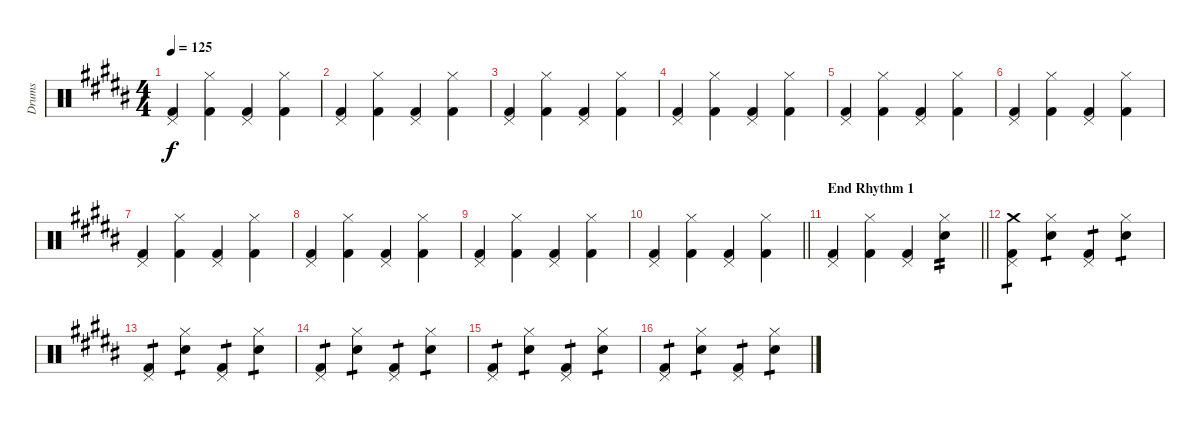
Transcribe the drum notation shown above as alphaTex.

\track ("Drums" "Drums") {instrument percussion}
\staff {score}
\articulation defaults
\ts (4 4)
\tempo 125
\clef neutral
\ks b
("Kick (hit) 2" "Pedal Hi-Hat (hit)").4{dy f} ("Kick (hit) 2" "Hi-Hat (closed)").4 ("Kick (hit) 2" "Pedal Hi-Hat (hit)").4 ("Kick (hit) 2" "Hi-Hat (closed)").4 |
("Kick (hit) 2" "Pedal Hi-Hat (hit)").4 ("Kick (hit) 2" "Hi-Hat (closed)").4 ("Kick (hit) 2" "Pedal Hi-Hat (hit)").4 ("Kick (hit) 2" "Hi-Hat (closed)").4 |
("Kick (hit) 2" "Pedal Hi-Hat (hit)").4 ("Kick (hit) 2" "Hi-Hat (closed)").4 ("Kick (hit) 2" "Pedal Hi-Hat (hit)").4 ("Kick (hit) 2" "Hi-Hat (closed)").4 |
("Kick (hit) 2" "Pedal Hi-Hat (hit)").4 ("Kick (hit) 2" "Hi-Hat (closed)").4 ("Kick (hit) 2" "Pedal Hi-Hat (hit)").4 ("Kick (hit) 2" "Hi-Hat (closed)").4 |
("Kick (hit) 2" "Pedal Hi-Hat (hit)").4 ("Kick (hit) 2" "Hi-Hat (closed)").4 ("Kick (hit) 2" "Pedal Hi-Hat (hit)").4 ("Kick (hit) 2" "Hi-Hat (closed)").4 |
("Kick (hit) 2" "Pedal Hi-Hat (hit)").4 ("Kick (hit) 2" "Hi-Hat (closed)").4 ("Kick (hit) 2" "Pedal Hi-Hat (hit)").4 ("Kick (hit) 2" "Hi-Hat (closed)").4 |
("Kick (hit) 2" "Pedal Hi-Hat (hit)").4 ("Kick (hit) 2" "Hi-Hat (closed)").4 ("Kick (hit) 2" "Pedal Hi-Hat (hit)").4 ("Kick (hit) 2" "Hi-Hat (closed)").4 |
("Kick (hit) 2" "Pedal Hi-Hat (hit)").4 ("Kick (hit) 2" "Hi-Hat (closed)").4 ("Kick (hit) 2" "Pedal Hi-Hat (hit)").4 ("Kick (hit) 2" "Hi-Hat (closed)").4 |
("Kick (hit) 2" "Pedal Hi-Hat (hit)").4 ("Kick (hit) 2" "Hi-Hat (closed)").4 ("Kick (hit) 2" "Pedal Hi-Hat (hit)").4 ("Kick (hit) 2" "Hi-Hat (closed)").4 |
\barLineRight lightlight
("Kick (hit) 2" "Pedal Hi-Hat (hit)").4 ("Kick (hit) 2" "Hi-Hat (closed)").4 ("Kick (hit) 2" "Pedal Hi-Hat (hit)").4 ("Kick (hit) 2" "Hi-Hat (closed)").4 |
\section ("" "End Rhythm 1")
\barLineRight lightlight
("Kick (hit) 2" "Pedal Hi-Hat (hit)").4 ("Kick (hit) 2" "Hi-Hat (closed)").4 ("Kick (hit) 2" "Pedal Hi-Hat (hit)").4 ("Snare (hit) 2" "Hi-Hat (closed)").4{tp 2} |
("Kick (hit) 2" "Pedal Hi-Hat (hit)" "Crash medium (hit)").4{tp 1} ("Snare (hit) 2" "Hi-Hat (closed)").4{tp 1} ("Kick (hit) 2" "Pedal Hi-Hat (hit)").4{tp 1} ("Snare (hit) 2" "Hi-Hat (closed)").4{tp 1} |
("Kick (hit) 2" "Pedal Hi-Hat (hit)").4{tp 1} ("Snare (hit) 2" "Hi-Hat (closed)").4{tp 1} ("Kick (hit) 2" "Pedal Hi-Hat (hit)").4{tp 1} ("Snare (hit) 2" "Hi-Hat (closed)").4{tp 1} |
("Kick (hit) 2" "Pedal Hi-Hat (hit)").4{tp 1} ("Snare (hit) 2" "Hi-Hat (closed)").4{tp 1} ("Kick (hit) 2" "Pedal Hi-Hat (hit)").4{tp 1} ("Snare (hit) 2" "Hi-Hat (closed)").4{tp 1} |
("Kick (hit) 2" "Pedal Hi-Hat (hit)").4{tp 1} ("Snare (hit) 2" "Hi-Hat (closed)").4{tp 1} ("Kick (hit) 2" "Pedal Hi-Hat (hit)").4{tp 1} ("Snare (hit) 2" "Hi-Hat (closed)").4{tp 1} |
("Kick (hit) 2" "Pedal Hi-Hat (hit)").4{tp 1} ("Snare (hit) 2" "Hi-Hat (closed)").4{tp 1} ("Kick (hit) 2" "Pedal Hi-Hat (hit)").4{tp 1} ("Snare (hit) 2" "Hi-Hat (closed)").4{tp 1}
